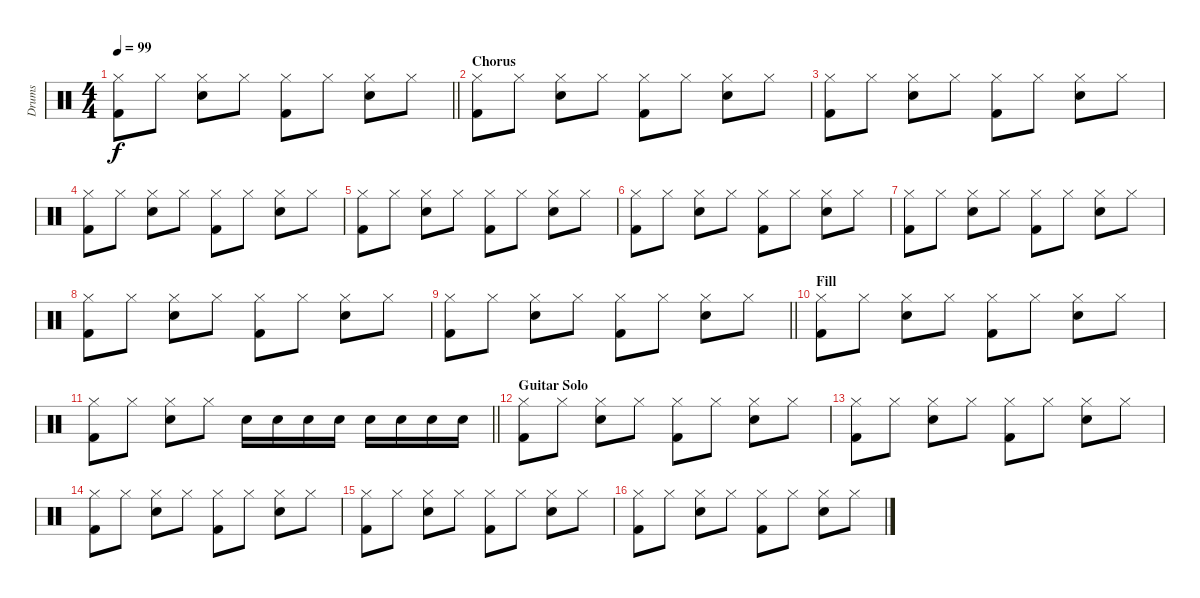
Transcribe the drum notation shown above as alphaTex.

\track ("Drums" "Drums") {instrument percussion}
\staff {score}
\articulation defaults
\ts (4 4)
\tempo 99
\clef neutral
\barLineRight lightlight
\ks c
("Hi-Hat (closed)" "Kick (hit) 2").8{dy f} "Hi-Hat (closed)".8 ("Hi-Hat (closed)" "Snare (hit) 2").8 "Hi-Hat (closed)".8 ("Hi-Hat (closed)" "Kick (hit) 2").8 "Hi-Hat (closed)".8 ("Hi-Hat (closed)" "Snare (hit) 2").8 "Hi-Hat (closed)".8 |
\section ("" "Chorus")
("Hi-Hat (closed)" "Kick (hit) 2").8 "Hi-Hat (closed)".8 ("Hi-Hat (closed)" "Snare (hit) 2").8 "Hi-Hat (closed)".8 ("Hi-Hat (closed)" "Kick (hit) 2").8 "Hi-Hat (closed)".8 ("Hi-Hat (closed)" "Snare (hit) 2").8 "Hi-Hat (closed)".8 |
("Hi-Hat (closed)" "Kick (hit) 2").8 "Hi-Hat (closed)".8 ("Hi-Hat (closed)" "Snare (hit) 2").8 "Hi-Hat (closed)".8 ("Hi-Hat (closed)" "Kick (hit) 2").8 "Hi-Hat (closed)".8 ("Hi-Hat (closed)" "Snare (hit) 2").8 "Hi-Hat (closed)".8 |
("Hi-Hat (closed)" "Kick (hit) 2").8 "Hi-Hat (closed)".8 ("Hi-Hat (closed)" "Snare (hit) 2").8 "Hi-Hat (closed)".8 ("Hi-Hat (closed)" "Kick (hit) 2").8 "Hi-Hat (closed)".8 ("Hi-Hat (closed)" "Snare (hit) 2").8 "Hi-Hat (closed)".8 |
("Hi-Hat (closed)" "Kick (hit) 2").8 "Hi-Hat (closed)".8 ("Hi-Hat (closed)" "Snare (hit) 2").8 "Hi-Hat (closed)".8 ("Hi-Hat (closed)" "Kick (hit) 2").8 "Hi-Hat (closed)".8 ("Hi-Hat (closed)" "Snare (hit) 2").8 "Hi-Hat (closed)".8 |
("Hi-Hat (closed)" "Kick (hit) 2").8 "Hi-Hat (closed)".8 ("Hi-Hat (closed)" "Snare (hit) 2").8 "Hi-Hat (closed)".8 ("Hi-Hat (closed)" "Kick (hit) 2").8 "Hi-Hat (closed)".8 ("Hi-Hat (closed)" "Snare (hit) 2").8 "Hi-Hat (closed)".8 |
("Hi-Hat (closed)" "Kick (hit) 2").8 "Hi-Hat (closed)".8 ("Hi-Hat (closed)" "Snare (hit) 2").8 "Hi-Hat (closed)".8 ("Hi-Hat (closed)" "Kick (hit) 2").8 "Hi-Hat (closed)".8 ("Hi-Hat (closed)" "Snare (hit) 2").8 "Hi-Hat (closed)".8 |
("Hi-Hat (closed)" "Kick (hit) 2").8 "Hi-Hat (closed)".8 ("Hi-Hat (closed)" "Snare (hit) 2").8 "Hi-Hat (closed)".8 ("Hi-Hat (closed)" "Kick (hit) 2").8 "Hi-Hat (closed)".8 ("Hi-Hat (closed)" "Snare (hit) 2").8 "Hi-Hat (closed)".8 |
\barLineRight lightlight
("Hi-Hat (closed)" "Kick (hit) 2").8 "Hi-Hat (closed)".8 ("Hi-Hat (closed)" "Snare (hit) 2").8 "Hi-Hat (closed)".8 ("Hi-Hat (closed)" "Kick (hit) 2").8 "Hi-Hat (closed)".8 ("Hi-Hat (closed)" "Snare (hit) 2").8 "Hi-Hat (closed)".8 |
\section ("" "Fill")
("Hi-Hat (closed)" "Kick (hit) 2").8 "Hi-Hat (closed)".8 ("Hi-Hat (closed)" "Snare (hit) 2").8 "Hi-Hat (closed)".8 ("Hi-Hat (closed)" "Kick (hit) 2").8 "Hi-Hat (closed)".8 ("Hi-Hat (closed)" "Snare (hit) 2").8 "Hi-Hat (closed)".8 |
\barLineRight lightlight
("Hi-Hat (closed)" "Kick (hit) 2").8 "Hi-Hat (closed)".8 ("Hi-Hat (closed)" "Snare (hit) 2").8 "Hi-Hat (closed)".8 "Snare (hit) 2".16 "Snare (hit) 2".16 "Snare (hit) 2".16 "Snare (hit) 2".16 "Snare (hit) 2".16 "Snare (hit) 2".16 "Snare (hit) 2".16 "Snare (hit) 2".16 |
\section ("" "Guitar Solo")
("Hi-Hat (closed)" "Kick (hit) 2").8 "Hi-Hat (closed)".8 ("Hi-Hat (closed)" "Snare (hit) 2").8 "Hi-Hat (closed)".8 ("Hi-Hat (closed)" "Kick (hit) 2").8 "Hi-Hat (closed)".8 ("Hi-Hat (closed)" "Snare (hit) 2").8 "Hi-Hat (closed)".8 |
("Hi-Hat (closed)" "Kick (hit) 2").8 "Hi-Hat (closed)".8 ("Hi-Hat (closed)" "Snare (hit) 2").8 "Hi-Hat (closed)".8 ("Hi-Hat (closed)" "Kick (hit) 2").8 "Hi-Hat (closed)".8 ("Hi-Hat (closed)" "Snare (hit) 2").8 "Hi-Hat (closed)".8 |
("Hi-Hat (closed)" "Kick (hit) 2").8 "Hi-Hat (closed)".8 ("Hi-Hat (closed)" "Snare (hit) 2").8 "Hi-Hat (closed)".8 ("Hi-Hat (closed)" "Kick (hit) 2").8 "Hi-Hat (closed)".8 ("Hi-Hat (closed)" "Snare (hit) 2").8 "Hi-Hat (closed)".8 |
("Hi-Hat (closed)" "Kick (hit) 2").8 "Hi-Hat (closed)".8 ("Hi-Hat (closed)" "Snare (hit) 2").8 "Hi-Hat (closed)".8 ("Hi-Hat (closed)" "Kick (hit) 2").8 "Hi-Hat (closed)".8 ("Hi-Hat (closed)" "Snare (hit) 2").8 "Hi-Hat (closed)".8 |
("Hi-Hat (closed)" "Kick (hit) 2").8 "Hi-Hat (closed)".8 ("Hi-Hat (closed)" "Snare (hit) 2").8 "Hi-Hat (closed)".8 ("Hi-Hat (closed)" "Kick (hit) 2").8 "Hi-Hat (closed)".8 ("Hi-Hat (closed)" "Snare (hit) 2").8 "Hi-Hat (closed)".8
